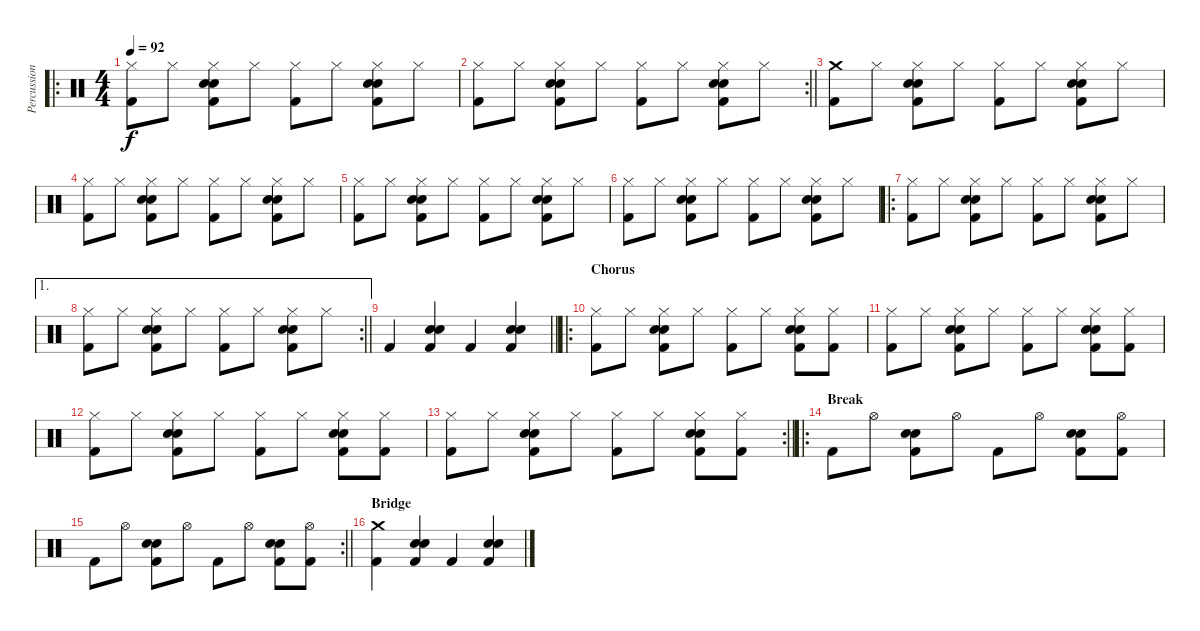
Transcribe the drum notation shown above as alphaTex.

\track ("Percussion" "Percussion") {instrument percussion}
\staff {score}
\articulation defaults
\ro
\ts (4 4)
\tempo 92
\clef neutral
\ks c
("Hi-Hat (closed)" "Kick (hit) 2").8{dy f} "Hi-Hat (closed)".8 ("Hi-Hat (closed)" "Electric Snare (hit)" "Hand Clap (hit)" "Kick (hit) 2").8 "Hi-Hat (closed)".8 ("Hi-Hat (closed)" "Kick (hit) 2").8 "Hi-Hat (closed)".8 ("Hi-Hat (closed)" "Electric Snare (hit)" "Hand Clap (hit)" "Kick (hit) 2").8 "Hi-Hat (closed)".8 |
\rc 2
\barLineRight lightlight
("Hi-Hat (closed)" "Kick (hit) 2").8 "Hi-Hat (closed)".8 ("Hi-Hat (closed)" "Electric Snare (hit)" "Hand Clap (hit)" "Kick (hit) 2").8 "Hi-Hat (closed)".8 ("Hi-Hat (closed)" "Kick (hit) 2").8 "Hi-Hat (closed)".8 ("Hi-Hat (closed)" "Electric Snare (hit)" "Hand Clap (hit)" "Kick (hit) 2").8 "Hi-Hat (closed)".8 |
("Crash medium (hit)" "Kick (hit) 2").8 "Hi-Hat (closed)".8 ("Hi-Hat (closed)" "Electric Snare (hit)" "Hand Clap (hit)" "Kick (hit) 2").8 "Hi-Hat (closed)".8 ("Hi-Hat (closed)" "Kick (hit) 2").8 "Hi-Hat (closed)".8 ("Hi-Hat (closed)" "Electric Snare (hit)" "Hand Clap (hit)" "Kick (hit) 2").8 "Hi-Hat (closed)".8 |
("Hi-Hat (closed)" "Kick (hit) 2").8 "Hi-Hat (closed)".8 ("Hi-Hat (closed)" "Electric Snare (hit)" "Hand Clap (hit)" "Kick (hit) 2").8 "Hi-Hat (closed)".8 ("Hi-Hat (closed)" "Kick (hit) 2").8 "Hi-Hat (closed)".8 ("Hi-Hat (closed)" "Electric Snare (hit)" "Hand Clap (hit)" "Kick (hit) 2").8 "Hi-Hat (closed)".8 |
("Hi-Hat (closed)" "Kick (hit) 2").8 "Hi-Hat (closed)".8 ("Hi-Hat (closed)" "Electric Snare (hit)" "Hand Clap (hit)" "Kick (hit) 2").8 "Hi-Hat (closed)".8 ("Hi-Hat (closed)" "Kick (hit) 2").8 "Hi-Hat (closed)".8 ("Hi-Hat (closed)" "Electric Snare (hit)" "Hand Clap (hit)" "Kick (hit) 2").8 "Hi-Hat (closed)".8 |
("Hi-Hat (closed)" "Kick (hit) 2").8 "Hi-Hat (closed)".8 ("Hi-Hat (closed)" "Electric Snare (hit)" "Hand Clap (hit)" "Kick (hit) 2").8 "Hi-Hat (closed)".8 ("Hi-Hat (closed)" "Kick (hit) 2").8 "Hi-Hat (closed)".8 ("Hi-Hat (closed)" "Electric Snare (hit)" "Hand Clap (hit)" "Kick (hit) 2").8 "Hi-Hat (closed)".8 |
\ro
("Hi-Hat (closed)" "Kick (hit) 2").8 "Hi-Hat (closed)".8 ("Hi-Hat (closed)" "Electric Snare (hit)" "Hand Clap (hit)" "Kick (hit) 2").8 "Hi-Hat (closed)".8 ("Hi-Hat (closed)" "Kick (hit) 2").8 "Hi-Hat (closed)".8 ("Hi-Hat (closed)" "Electric Snare (hit)" "Hand Clap (hit)" "Kick (hit) 2").8 "Hi-Hat (closed)".8 |
\ae 1
\rc 2
\barLineRight lightlight
("Hi-Hat (closed)" "Kick (hit) 2").8 "Hi-Hat (closed)".8 ("Hi-Hat (closed)" "Electric Snare (hit)" "Hand Clap (hit)" "Kick (hit) 2").8 "Hi-Hat (closed)".8 ("Hi-Hat (closed)" "Kick (hit) 2").8 "Hi-Hat (closed)".8 ("Hi-Hat (closed)" "Electric Snare (hit)" "Hand Clap (hit)" "Kick (hit) 2").8 "Hi-Hat (closed)".8 |
\barLineRight lightlight "Kick (hit) 2".4
("Electric Snare (hit)" "Hand Clap (hit)" "Kick (hit) 2").4 "Kick (hit) 2".4 ("Electric Snare (hit)" "Hand Clap (hit)" "Kick (hit) 2").4 |
\ro
\section ("" "Chorus")
("Hi-Hat (closed)" "Kick (hit) 2").8 "Hi-Hat (closed)".8 ("Hi-Hat (closed)" "Electric Snare (hit)" "Hand Clap (hit)" "Kick (hit) 2").8 "Hi-Hat (closed)".8 ("Hi-Hat (closed)" "Kick (hit) 2").8 "Hi-Hat (closed)".8 ("Hi-Hat (closed)" "Electric Snare (hit)" "Hand Clap (hit)" "Kick (hit) 2").8 ("Hi-Hat (closed)" "Kick (hit) 2").8 |
("Hi-Hat (closed)" "Kick (hit) 2").8 "Hi-Hat (closed)".8 ("Hi-Hat (closed)" "Electric Snare (hit)" "Hand Clap (hit)" "Kick (hit) 2").8 "Hi-Hat (closed)".8 ("Hi-Hat (closed)" "Kick (hit) 2").8 "Hi-Hat (closed)".8 ("Hi-Hat (closed)" "Electric Snare (hit)" "Hand Clap (hit)" "Kick (hit) 2").8 ("Hi-Hat (closed)" "Kick (hit) 2").8 |
("Hi-Hat (closed)" "Kick (hit) 2").8 "Hi-Hat (closed)".8 ("Hi-Hat (closed)" "Electric Snare (hit)" "Hand Clap (hit)" "Kick (hit) 2").8 "Hi-Hat (closed)".8 ("Hi-Hat (closed)" "Kick (hit) 2").8 "Hi-Hat (closed)".8 ("Hi-Hat (closed)" "Electric Snare (hit)" "Hand Clap (hit)" "Kick (hit) 2").8 ("Hi-Hat (closed)" "Kick (hit) 2").8 |
\rc 2
\barLineRight lightlight
("Hi-Hat (closed)" "Kick (hit) 2").8 "Hi-Hat (closed)".8 ("Hi-Hat (closed)" "Electric Snare (hit)" "Hand Clap (hit)" "Kick (hit) 2").8 "Hi-Hat (closed)".8 ("Hi-Hat (closed)" "Kick (hit) 2").8 "Hi-Hat (closed)".8 ("Hi-Hat (closed)" "Electric Snare (hit)" "Hand Clap (hit)" "Kick (hit) 2").8 ("Hi-Hat (closed)" "Kick (hit) 2").8 |
\ro
\section ("" "Break")
"Kick (hit) 2".8 "Hi-Hat (open)".8 ("Electric Snare (hit)" "Hand Clap (hit)" "Kick (hit) 2").8 "Hi-Hat (open)".8 "Kick (hit) 2".8 "Hi-Hat (open)".8 ("Electric Snare (hit)" "Hand Clap (hit)" "Kick (hit) 2").8 ("Hi-Hat (open)" "Kick (hit) 2").8 |
\rc 2
\barLineRight lightlight "Kick (hit) 2".8 "Hi-Hat (open)".8
("Electric Snare (hit)" "Hand Clap (hit)" "Kick (hit) 2").8 "Hi-Hat (open)".8 "Kick (hit) 2".8 "Hi-Hat (open)".8 ("Electric Snare (hit)" "Hand Clap (hit)" "Kick (hit) 2").8 ("Hi-Hat (open)" "Kick (hit) 2").8 |
\section ("" "Bridge")
("Crash medium (hit)" "Kick (hit) 2").4 ("Electric Snare (hit)" "Hand Clap (hit)" "Kick (hit) 2").4 "Kick (hit) 2".4 ("Electric Snare (hit)" "Hand Clap (hit)" "Kick (hit) 2").4
